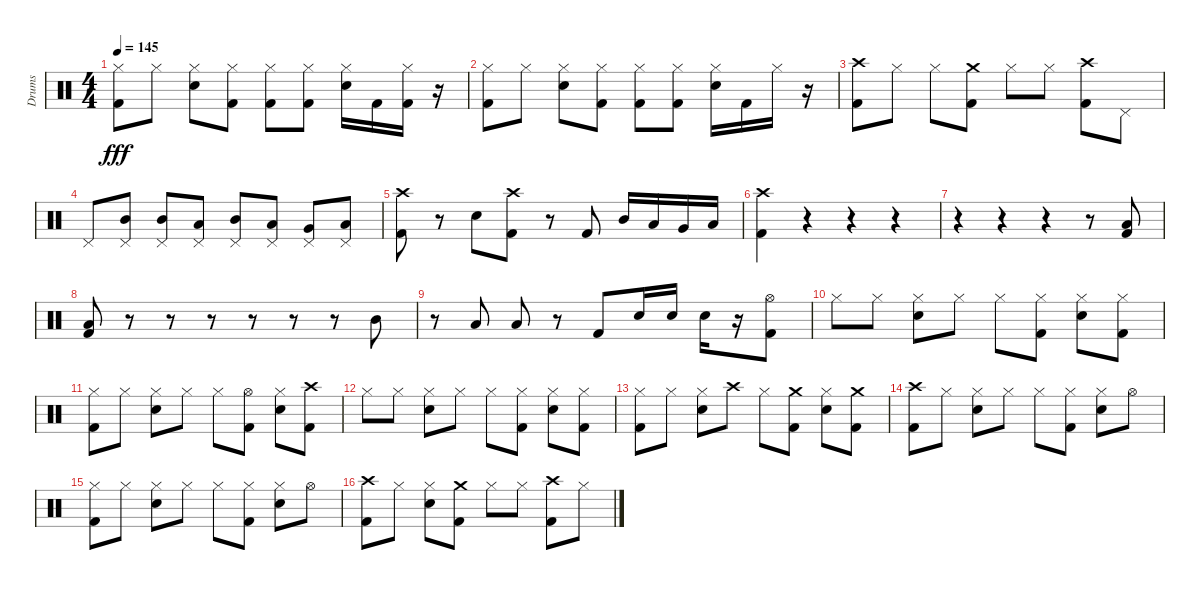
\track ("Drums" "Drums") {instrument percussion}
\staff {score}
\articulation defaults
\ts (4 4)
\tempo 145
\clef neutral
\ks c
("Hi-Hat (closed)" "Kick (hit) 2").8{dy fff} "Hi-Hat (closed)".8 ("Hi-Hat (closed)" "Snare (hit) 2").8 ("Hi-Hat (closed)" "Kick (hit) 2").8 ("Hi-Hat (closed)" "Kick (hit) 2").8 ("Hi-Hat (closed)" "Kick (hit) 2").8 ("Hi-Hat (closed)" "Snare (hit) 2").16 "Kick (hit) 2".16 ("Hi-Hat (closed)" "Kick (hit) 2").16 r.16 |
("Hi-Hat (closed)" "Kick (hit) 2").8 "Hi-Hat (closed)".8 ("Hi-Hat (closed)" "Snare (hit) 2").8 ("Hi-Hat (closed)" "Kick (hit) 2").8 ("Hi-Hat (closed)" "Kick (hit) 2").8 ("Hi-Hat (closed)" "Kick (hit) 2").8 ("Hi-Hat (closed)" "Snare (hit) 2").16 "Kick (hit) 2".16 "Hi-Hat (closed)".16 r.16 |
("Crash high (hit)" "Kick (hit) 2").8 "Hi-Hat (closed)".8 "Hi-Hat (closed)".8 ("Crash medium (hit)" "Kick (hit) 2").8 "Hi-Hat (closed)".8 "Hi-Hat (closed)".8 ("Crash high (hit)" "Kick (hit) 2").8 "Pedal Hi-Hat (hit)".8 |
"Pedal Hi-Hat (hit)".8 ("Pedal Hi-Hat (hit)" "Mid Tom (hit)").8 ("Pedal Hi-Hat (hit)" "Mid Tom (hit)").8 ("Pedal Hi-Hat (hit)" "Low Tom (hit)").8 ("Pedal Hi-Hat (hit)" "Mid Tom (hit)").8 ("Pedal Hi-Hat (hit)" "Low Tom (hit)").8 ("Pedal Hi-Hat (hit)" "Very Low Tom (hit)").8 ("Pedal Hi-Hat (hit)" "Low Floor Tom (hit)").8 |
("Crash high (hit)" "Kick (hit) 2").8 r.8 "Snare (hit) 2".8 ("Crash high (hit)" "Kick (hit) 2").8 r.8 "Kick (hit) 2".8 "Mid Tom (hit)".16 "Low Tom (hit)".16 "Very Low Tom (hit)".16 "Low Floor Tom (hit)".16 |
("Crash high (hit)" "Kick (hit) 2").4 r.4 r.4 r.4 |
r.4 r.4 r.4 r.8 ("Low Floor Tom (hit)" "Kick (hit) 2").8 |
("Low Floor Tom (hit)" "Kick (hit) 2").8 r.8 r.8 r.8 r.8 r.8 r.8 "Mid Tom (hit)".8 |
r.8 "Low Tom (hit)".8 "Low Tom (hit)".8 r.8 "Kick (hit) 2".8 "Snare (hit) 2".16 "Snare (hit) 2".16 "Snare (hit) 2".16 r.16 ("Hi-Hat (open)" "Kick (hit) 2").8 |
"Hi-Hat (closed)".8 "Hi-Hat (closed)".8 ("Hi-Hat (closed)" "Snare (hit) 2").8 "Hi-Hat (closed)".8 "Hi-Hat (closed)".8 ("Hi-Hat (closed)" "Kick (hit) 2").8 ("Hi-Hat (closed)" "Snare (hit) 2").8 ("Hi-Hat (closed)" "Kick (hit) 2").8 |
("Hi-Hat (closed)" "Kick (hit) 2").8 "Hi-Hat (closed)".8 ("Hi-Hat (closed)" "Snare (hit) 2").8 "Hi-Hat (closed)".8 "Hi-Hat (closed)".8 ("Hi-Hat (open)" "Kick (hit) 2").8 ("Hi-Hat (closed)" "Snare (hit) 2").8 ("Crash high (hit)" "Kick (hit) 2").8 |
"Hi-Hat (closed)".8 "Hi-Hat (closed)".8 ("Hi-Hat (closed)" "Snare (hit) 2").8 "Hi-Hat (closed)".8 "Hi-Hat (closed)".8 ("Hi-Hat (closed)" "Kick (hit) 2").8 ("Hi-Hat (closed)" "Snare (hit) 2").8 ("Hi-Hat (closed)" "Kick (hit) 2").8 |
("Hi-Hat (closed)" "Kick (hit) 2").8 "Hi-Hat (closed)".8 ("Hi-Hat (closed)" "Snare (hit) 2").8 "Crash high (hit)".8 "Hi-Hat (closed)".8 ("Crash medium (hit)" "Kick (hit) 2").8 ("Hi-Hat (closed)" "Snare (hit) 2").8 ("Crash medium (hit)" "Kick (hit) 2").8 |
("Crash high (hit)" "Kick (hit) 2").8 "Hi-Hat (closed)".8 ("Hi-Hat (closed)" "Snare (hit) 2").8 "Hi-Hat (closed)".8 "Hi-Hat (closed)".8 ("Hi-Hat (closed)" "Kick (hit) 2").8 ("Hi-Hat (closed)" "Snare (hit) 2").8 "Hi-Hat (open)".8 |
("Hi-Hat (closed)" "Kick (hit) 2").8 "Hi-Hat (closed)".8 ("Hi-Hat (closed)" "Snare (hit) 2").8 "Hi-Hat (closed)".8 "Hi-Hat (closed)".8 ("Hi-Hat (closed)" "Kick (hit) 2").8 ("Hi-Hat (closed)" "Snare (hit) 2").8 "Hi-Hat (open)".8 |
("Crash high (hit)" "Kick (hit) 2").8 "Hi-Hat (closed)".8 ("Hi-Hat (closed)" "Snare (hit) 2").8 ("Crash medium (hit)" "Kick (hit) 2").8 "Hi-Hat (closed)".8 "Hi-Hat (closed)".8 ("Crash high (hit)" "Kick (hit) 2").8 "Hi-Hat (closed)".8
